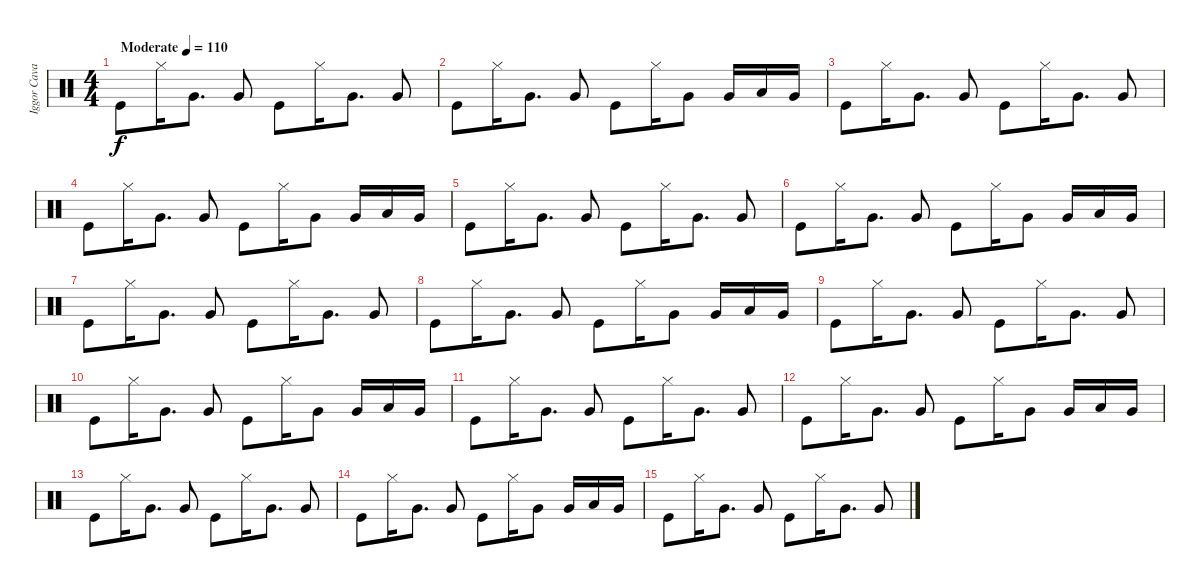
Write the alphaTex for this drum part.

\track ("Iggor Cavalera" "Iggor Cava") {instrument percussion}
\staff {score}
\articulation defaults
\ts (4 4)
\tempo (110 "Moderate")
\clef neutral
\ks c "Kick (hit)".8{dy f} "Hi-Hat (closed)".16 "Very Low Tom (hit)".8{d} "Very Low Tom (hit)".8 "Kick (hit)".8 "Hi-Hat (closed)".16 "Very Low Tom (hit)".8{d} "Very Low Tom (hit)".8
|
"Kick (hit)".8 "Hi-Hat (closed)".16 "Very Low Tom (hit)".8{d} "Very Low Tom (hit)".8 "Kick (hit)".8 "Hi-Hat (closed)".16 "Very Low Tom (hit)".8 "Very Low Tom (hit)".16 "Low Tom (hit)".16 "Very Low Tom (hit)".16 |
"Kick (hit)".8 "Hi-Hat (closed)".16 "Very Low Tom (hit)".8{d} "Very Low Tom (hit)".8 "Kick (hit)".8 "Hi-Hat (closed)".16 "Very Low Tom (hit)".8{d} "Very Low Tom (hit)".8 |
"Kick (hit)".8 "Hi-Hat (closed)".16 "Very Low Tom (hit)".8{d} "Very Low Tom (hit)".8 "Kick (hit)".8 "Hi-Hat (closed)".16 "Very Low Tom (hit)".8 "Very Low Tom (hit)".16 "Low Tom (hit)".16 "Very Low Tom (hit)".16 |
"Kick (hit)".8 "Hi-Hat (closed)".16 "Very Low Tom (hit)".8{d} "Very Low Tom (hit)".8 "Kick (hit)".8 "Hi-Hat (closed)".16 "Very Low Tom (hit)".8{d} "Very Low Tom (hit)".8 |
"Kick (hit)".8 "Hi-Hat (closed)".16 "Very Low Tom (hit)".8{d} "Very Low Tom (hit)".8 "Kick (hit)".8 "Hi-Hat (closed)".16 "Very Low Tom (hit)".8 "Very Low Tom (hit)".16 "Low Tom (hit)".16 "Very Low Tom (hit)".16 |
"Kick (hit)".8 "Hi-Hat (closed)".16 "Very Low Tom (hit)".8{d} "Very Low Tom (hit)".8 "Kick (hit)".8 "Hi-Hat (closed)".16 "Very Low Tom (hit)".8{d} "Very Low Tom (hit)".8 |
"Kick (hit)".8 "Hi-Hat (closed)".16 "Very Low Tom (hit)".8{d} "Very Low Tom (hit)".8 "Kick (hit)".8 "Hi-Hat (closed)".16 "Very Low Tom (hit)".8 "Very Low Tom (hit)".16 "Low Tom (hit)".16 "Very Low Tom (hit)".16 |
"Kick (hit)".8 "Hi-Hat (closed)".16 "Very Low Tom (hit)".8{d} "Very Low Tom (hit)".8 "Kick (hit)".8 "Hi-Hat (closed)".16 "Very Low Tom (hit)".8{d} "Very Low Tom (hit)".8 |
"Kick (hit)".8 "Hi-Hat (closed)".16 "Very Low Tom (hit)".8{d} "Very Low Tom (hit)".8 "Kick (hit)".8 "Hi-Hat (closed)".16 "Very Low Tom (hit)".8 "Very Low Tom (hit)".16 "Low Tom (hit)".16 "Very Low Tom (hit)".16 |
"Kick (hit)".8 "Hi-Hat (closed)".16 "Very Low Tom (hit)".8{d} "Very Low Tom (hit)".8 "Kick (hit)".8 "Hi-Hat (closed)".16 "Very Low Tom (hit)".8{d} "Very Low Tom (hit)".8 |
"Kick (hit)".8 "Hi-Hat (closed)".16 "Very Low Tom (hit)".8{d} "Very Low Tom (hit)".8 "Kick (hit)".8 "Hi-Hat (closed)".16 "Very Low Tom (hit)".8 "Very Low Tom (hit)".16 "Low Tom (hit)".16 "Very Low Tom (hit)".16 |
"Kick (hit)".8 "Hi-Hat (closed)".16 "Very Low Tom (hit)".8{d} "Very Low Tom (hit)".8 "Kick (hit)".8 "Hi-Hat (closed)".16 "Very Low Tom (hit)".8{d} "Very Low Tom (hit)".8 |
"Kick (hit)".8 "Hi-Hat (closed)".16 "Very Low Tom (hit)".8{d} "Very Low Tom (hit)".8 "Kick (hit)".8 "Hi-Hat (closed)".16 "Very Low Tom (hit)".8 "Very Low Tom (hit)".16 "Low Tom (hit)".16 "Very Low Tom (hit)".16 |
"Kick (hit)".8 "Hi-Hat (closed)".16 "Very Low Tom (hit)".8{d} "Very Low Tom (hit)".8 "Kick (hit)".8 "Hi-Hat (closed)".16 "Very Low Tom (hit)".8{d} "Very Low Tom (hit)".8
